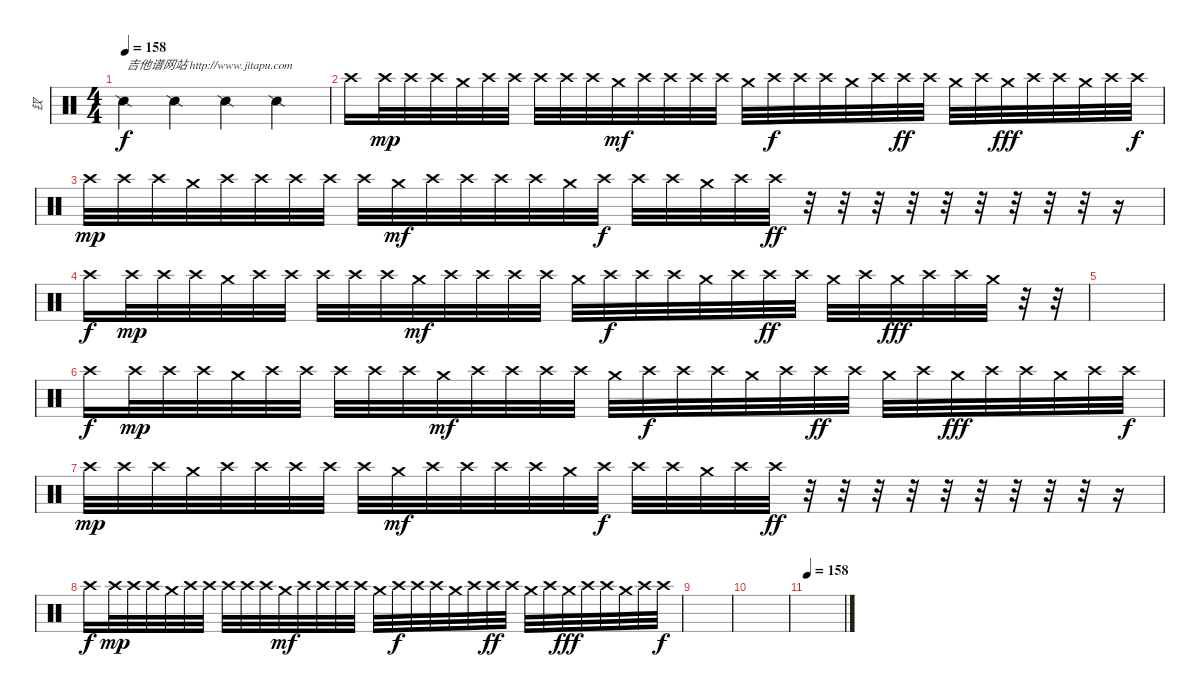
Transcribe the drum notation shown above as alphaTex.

\track ("钗" "钗") {instrument percussion}
\staff {score}
\articulation defaults
\ts (4 4)
\tempo 158
\tempo 155
\tempo 158
\clef neutral
\ks c "Snare (side stick) 2".4{txt "吉他谱网站 http://www.jitapu.com" dy f} "Snare (side stick) 2".4 "Snare (side stick) 2".4 "Snare (side stick) 2".4
|
"Crash high (hit)".16 "Crash high (hit)".32{dy mp} "Crash high (hit)".32 "Crash high (hit)".32 "Crash medium (hit)".32 "Crash high (hit)".32 "Crash high (hit)".32 "Crash high (hit)".32 "Crash high (hit)".32 "Crash high (hit)".32 "Crash medium (hit)".32{dy mf} "Crash high (hit)".32 "Crash high (hit)".32 "Crash high (hit)".32 "Crash high (hit)".32 "Crash medium (hit)".32 "Crash high (hit)".32{dy f} "Crash high (hit)".32 "Crash high (hit)".32 "Crash medium (hit)".32 "Crash high (hit)".32 "Crash high (hit)".32{dy ff} "Crash high (hit)".32 "Crash medium (hit)".32 "Crash high (hit)".32 "Crash medium (hit)".32{dy fff} "Crash high (hit)".32 "Crash high (hit)".32 "Crash medium (hit)".32 "Crash high (hit)".32 "Crash high (hit)".32{dy f} |
"Crash high (hit)".32{dy mp} "Crash high (hit)".32 "Crash high (hit)".32 "Crash medium (hit)".32 "Crash high (hit)".32 "Crash high (hit)".32 "Crash high (hit)".32 "Crash high (hit)".32 "Crash high (hit)".32 "Crash medium (hit)".32{dy mf} "Crash high (hit)".32 "Crash high (hit)".32 "Crash high (hit)".32 "Crash high (hit)".32 "Crash medium (hit)".32 "Crash high (hit)".32{dy f} "Crash high (hit)".32 "Crash high (hit)".32 "Crash medium (hit)".32 "Crash high (hit)".32 "Crash high (hit)".32{dy ff} r.32 r.32 r.32 r.32 r.32 r.32 r.32 r.32 r.32 r.16 |
"Crash high (hit)".16{dy f} "Crash high (hit)".32{dy mp} "Crash high (hit)".32 "Crash high (hit)".32 "Crash medium (hit)".32 "Crash high (hit)".32 "Crash high (hit)".32 "Crash high (hit)".32 "Crash high (hit)".32 "Crash high (hit)".32 "Crash medium (hit)".32{dy mf} "Crash high (hit)".32 "Crash high (hit)".32 "Crash high (hit)".32 "Crash high (hit)".32 "Crash medium (hit)".32 "Crash high (hit)".32{dy f} "Crash high (hit)".32 "Crash high (hit)".32 "Crash medium (hit)".32 "Crash high (hit)".32 "Crash high (hit)".32{dy ff} "Crash high (hit)".32 "Crash medium (hit)".32 "Crash high (hit)".32 "Crash medium (hit)".32{dy fff} "Crash high (hit)".32 "Crash high (hit)".32 "Crash medium (hit)".32 r.32 r.32 |
|
"Crash high (hit)".16{dy f} "Crash high (hit)".32{dy mp} "Crash high (hit)".32 "Crash high (hit)".32 "Crash medium (hit)".32 "Crash high (hit)".32 "Crash high (hit)".32 "Crash high (hit)".32 "Crash high (hit)".32 "Crash high (hit)".32 "Crash medium (hit)".32{dy mf} "Crash high (hit)".32 "Crash high (hit)".32 "Crash high (hit)".32 "Crash high (hit)".32 "Crash medium (hit)".32 "Crash high (hit)".32{dy f} "Crash high (hit)".32 "Crash high (hit)".32 "Crash medium (hit)".32 "Crash high (hit)".32 "Crash high (hit)".32{dy ff} "Crash high (hit)".32 "Crash medium (hit)".32 "Crash high (hit)".32 "Crash medium (hit)".32{dy fff} "Crash high (hit)".32 "Crash high (hit)".32 "Crash medium (hit)".32 "Crash high (hit)".32 "Crash high (hit)".32{dy f} |
"Crash high (hit)".32{dy mp} "Crash high (hit)".32 "Crash high (hit)".32 "Crash medium (hit)".32 "Crash high (hit)".32 "Crash high (hit)".32 "Crash high (hit)".32 "Crash high (hit)".32 "Crash high (hit)".32 "Crash medium (hit)".32{dy mf} "Crash high (hit)".32 "Crash high (hit)".32 "Crash high (hit)".32 "Crash high (hit)".32 "Crash medium (hit)".32 "Crash high (hit)".32{dy f} "Crash high (hit)".32 "Crash high (hit)".32 "Crash medium (hit)".32 "Crash high (hit)".32 "Crash high (hit)".32{dy ff} r.32 r.32 r.32 r.32 r.32 r.32 r.32 r.32 r.32 r.16 |
"Crash high (hit)".16{dy f} "Crash high (hit)".32{dy mp} "Crash high (hit)".32 "Crash high (hit)".32 "Crash medium (hit)".32 "Crash high (hit)".32 "Crash high (hit)".32 "Crash high (hit)".32 "Crash high (hit)".32 "Crash high (hit)".32 "Crash medium (hit)".32{dy mf} "Crash high (hit)".32 "Crash high (hit)".32 "Crash high (hit)".32 "Crash high (hit)".32 "Crash medium (hit)".32 "Crash high (hit)".32{dy f} "Crash high (hit)".32 "Crash high (hit)".32 "Crash medium (hit)".32 "Crash high (hit)".32 "Crash high (hit)".32{dy ff} "Crash high (hit)".32 "Crash medium (hit)".32 "Crash high (hit)".32 "Crash medium (hit)".32{dy fff} "Crash high (hit)".32 "Crash high (hit)".32 "Crash medium (hit)".32 "Crash high (hit)".32 "Crash high (hit)".32{dy f} |
|
|
\tempo 158
